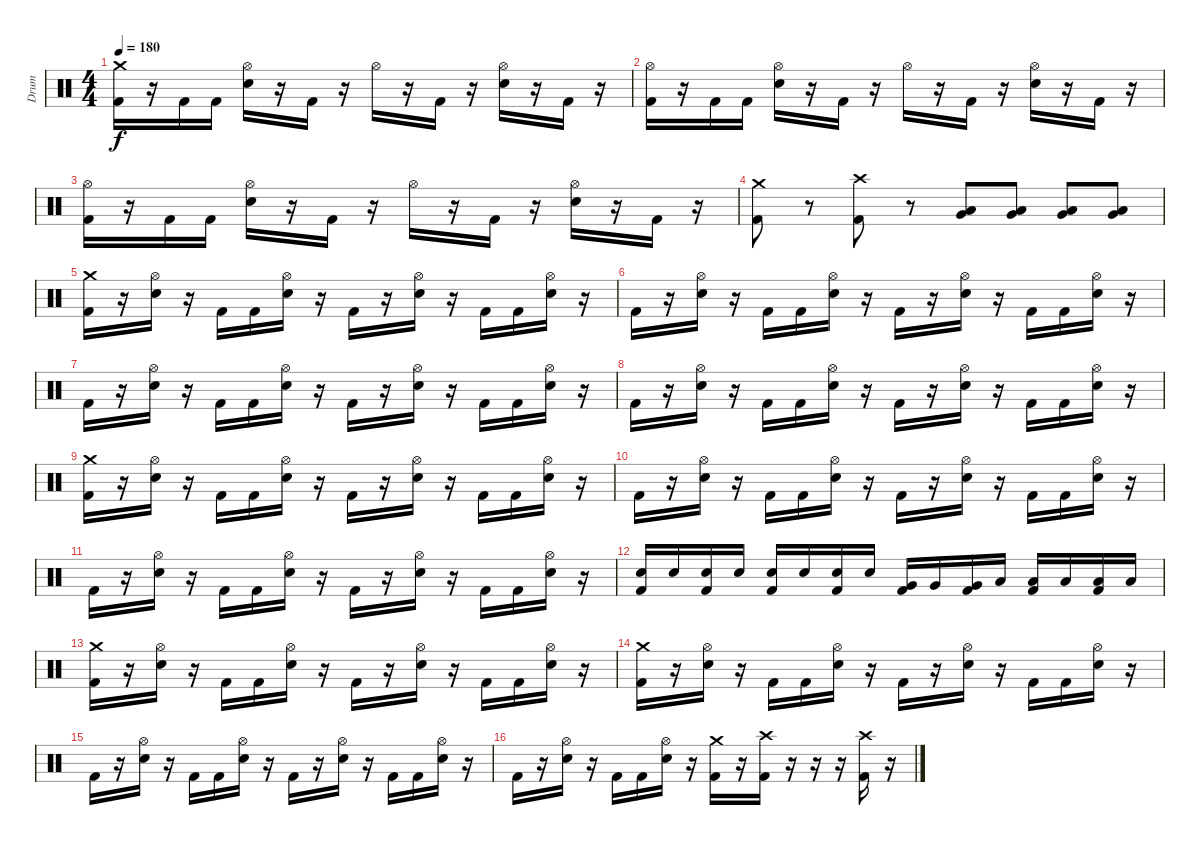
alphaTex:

\track ("Drum" "Drum") {instrument percussion}
\staff {score}
\articulation defaults
\ts (4 4)
\tempo 180
\clef neutral
\ks c
("Crash medium (hit)" "Kick (hit) 2").16{dy f} r.16 "Kick (hit) 2".16 "Kick (hit) 2".16 ("Hi-Hat (open)" "Electric Snare (hit)").16 r.16 "Kick (hit) 2".16 r.16 "Hi-Hat (open)".16 r.16 "Kick (hit) 2".16 r.16 ("Hi-Hat (open)" "Electric Snare (hit)").16 r.16 "Kick (hit) 2".16 r.16 |
("Hi-Hat (open)" "Kick (hit) 2").16 r.16 "Kick (hit) 2".16 "Kick (hit) 2".16 ("Hi-Hat (open)" "Electric Snare (hit)").16 r.16 "Kick (hit) 2".16 r.16 "Hi-Hat (open)".16 r.16 "Kick (hit) 2".16 r.16 ("Hi-Hat (open)" "Electric Snare (hit)").16 r.16 "Kick (hit) 2".16 r.16 |
("Hi-Hat (open)" "Kick (hit) 2").16 r.16 "Kick (hit) 2".16 "Kick (hit) 2".16 ("Hi-Hat (open)" "Electric Snare (hit)").16 r.16 "Kick (hit) 2".16 r.16 "Hi-Hat (open)".16 r.16 "Kick (hit) 2".16 r.16 ("Hi-Hat (open)" "Electric Snare (hit)").16 r.16 "Kick (hit) 2".16 r.16 |
("Crash medium (hit)" "Kick (hit) 2").8 r.8 ("Crash high (hit)" "Kick (hit) 2").8 r.8 ("Very Low Tom (hit)" "Low Floor Tom (hit)").8 ("Very Low Tom (hit)" "Low Floor Tom (hit)").8 ("Very Low Tom (hit)" "Low Floor Tom (hit)").8 ("Very Low Tom (hit)" "Low Floor Tom (hit)").8 |
("Crash medium (hit)" "Kick (hit) 2").16 r.16 ("Hi-Hat (open)" "Electric Snare (hit)").16 r.16 "Kick (hit) 2".16 "Kick (hit) 2".16 ("Hi-Hat (open)" "Electric Snare (hit)").16 r.16 "Kick (hit) 2".16 r.16 ("Hi-Hat (open)" "Electric Snare (hit)").16 r.16 "Kick (hit) 2".16 "Kick (hit) 2".16 ("Hi-Hat (open)" "Electric Snare (hit)").16 r.16 |
"Kick (hit) 2".16 r.16 ("Hi-Hat (open)" "Electric Snare (hit)").16 r.16 "Kick (hit) 2".16 "Kick (hit) 2".16 ("Hi-Hat (open)" "Electric Snare (hit)").16 r.16 "Kick (hit) 2".16 r.16 ("Hi-Hat (open)" "Electric Snare (hit)").16 r.16 "Kick (hit) 2".16 "Kick (hit) 2".16 ("Hi-Hat (open)" "Electric Snare (hit)").16 r.16 |
"Kick (hit) 2".16 r.16 ("Hi-Hat (open)" "Electric Snare (hit)").16 r.16 "Kick (hit) 2".16 "Kick (hit) 2".16 ("Hi-Hat (open)" "Electric Snare (hit)").16 r.16 "Kick (hit) 2".16 r.16 ("Hi-Hat (open)" "Electric Snare (hit)").16 r.16 "Kick (hit) 2".16 "Kick (hit) 2".16 ("Hi-Hat (open)" "Electric Snare (hit)").16 r.16 |
"Kick (hit) 2".16 r.16 ("Hi-Hat (open)" "Electric Snare (hit)").16 r.16 "Kick (hit) 2".16 "Kick (hit) 2".16 ("Hi-Hat (open)" "Electric Snare (hit)").16 r.16 "Kick (hit) 2".16 r.16 ("Hi-Hat (open)" "Electric Snare (hit)").16 r.16 "Kick (hit) 2".16 "Kick (hit) 2".16 ("Hi-Hat (open)" "Electric Snare (hit)").16 r.16 |
("Crash medium (hit)" "Kick (hit) 2").16 r.16 ("Hi-Hat (open)" "Electric Snare (hit)").16 r.16 "Kick (hit) 2".16 "Kick (hit) 2".16 ("Hi-Hat (open)" "Electric Snare (hit)").16 r.16 "Kick (hit) 2".16 r.16 ("Hi-Hat (open)" "Electric Snare (hit)").16 r.16 "Kick (hit) 2".16 "Kick (hit) 2".16 ("Hi-Hat (open)" "Electric Snare (hit)").16 r.16 |
"Kick (hit) 2".16 r.16 ("Hi-Hat (open)" "Electric Snare (hit)").16 r.16 "Kick (hit) 2".16 "Kick (hit) 2".16 ("Hi-Hat (open)" "Electric Snare (hit)").16 r.16 "Kick (hit) 2".16 r.16 ("Hi-Hat (open)" "Electric Snare (hit)").16 r.16 "Kick (hit) 2".16 "Kick (hit) 2".16 ("Hi-Hat (open)" "Electric Snare (hit)").16 r.16 |
"Kick (hit) 2".16 r.16 ("Hi-Hat (open)" "Electric Snare (hit)").16 r.16 "Kick (hit) 2".16 "Kick (hit) 2".16 ("Hi-Hat (open)" "Electric Snare (hit)").16 r.16 "Kick (hit) 2".16 r.16 ("Hi-Hat (open)" "Electric Snare (hit)").16 r.16 "Kick (hit) 2".16 "Kick (hit) 2".16 ("Hi-Hat (open)" "Electric Snare (hit)").16 r.16 |
("Electric Snare (hit)" "Kick (hit) 2").16 "Electric Snare (hit)".16 ("Electric Snare (hit)" "Kick (hit) 2").16 "Electric Snare (hit)".16 ("Electric Snare (hit)" "Kick (hit) 2").16 "Electric Snare (hit)".16 ("Electric Snare (hit)" "Kick (hit) 2").16 "Electric Snare (hit)".16 ("Very Low Tom (hit)" "Kick (hit) 2").16 "Very Low Tom (hit)".16 ("Very Low Tom (hit)" "Kick (hit) 2").16 "Low Floor Tom (hit)".16 ("Low Floor Tom (hit)" "Kick (hit) 2").16 "Low Floor Tom (hit)".16 ("Low Floor Tom (hit)" "Kick (hit) 2").16 "Low Floor Tom (hit)".16 |
("Crash medium (hit)" "Kick (hit) 2").16 r.16 ("Hi-Hat (open)" "Electric Snare (hit)").16 r.16 "Kick (hit) 2".16 "Kick (hit) 2".16 ("Hi-Hat (open)" "Electric Snare (hit)").16 r.16 "Kick (hit) 2".16 r.16 ("Hi-Hat (open)" "Electric Snare (hit)").16 r.16 "Kick (hit) 2".16 "Kick (hit) 2".16 ("Hi-Hat (open)" "Electric Snare (hit)").16 r.16 |
("Crash medium (hit)" "Kick (hit) 2").16 r.16 ("Hi-Hat (open)" "Electric Snare (hit)").16 r.16 "Kick (hit) 2".16 "Kick (hit) 2".16 ("Hi-Hat (open)" "Electric Snare (hit)").16 r.16 "Kick (hit) 2".16 r.16 ("Hi-Hat (open)" "Electric Snare (hit)").16 r.16 "Kick (hit) 2".16 "Kick (hit) 2".16 ("Hi-Hat (open)" "Electric Snare (hit)").16 r.16 |
"Kick (hit) 2".16 r.16 ("Hi-Hat (open)" "Electric Snare (hit)").16 r.16 "Kick (hit) 2".16 "Kick (hit) 2".16 ("Hi-Hat (open)" "Electric Snare (hit)").16 r.16 "Kick (hit) 2".16 r.16 ("Hi-Hat (open)" "Electric Snare (hit)").16 r.16 "Kick (hit) 2".16 "Kick (hit) 2".16 ("Hi-Hat (open)" "Electric Snare (hit)").16 r.16 |
"Kick (hit) 2".16 r.16 ("Hi-Hat (open)" "Electric Snare (hit)").16 r.16 "Kick (hit) 2".16 "Kick (hit) 2".16 ("Hi-Hat (open)" "Electric Snare (hit)").16 r.16 ("Crash medium (hit)" "Kick (hit) 2").16 r.16 ("Crash high (hit)" "Kick (hit) 2").16 r.16 r.16 r.16 ("Crash high (hit)" "Kick (hit) 2").16 r.16
